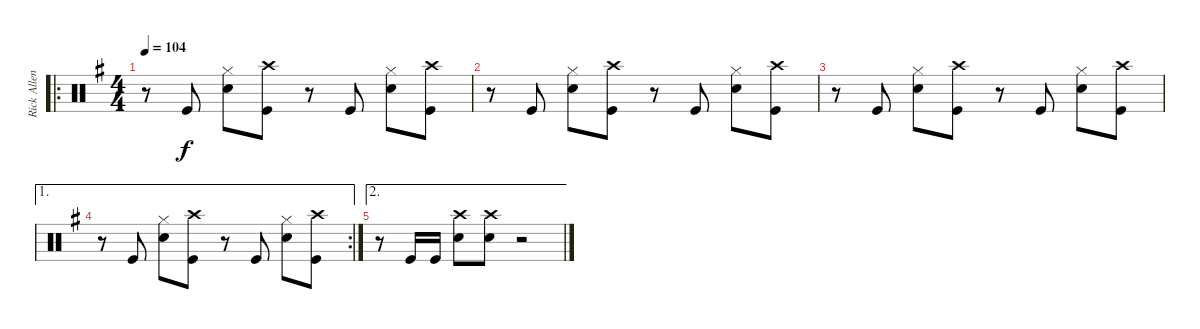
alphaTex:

\track ("Rick Allen" "Rick Allen") {instrument percussion}
\staff {score}
\articulation defaults
\ro
\ts (4 4)
\tempo 104
\clef neutral
\ks eminor
r.8{dy f} "Kick (hit)".8 ("Hi-Hat (closed)" "Snare (hit) 2").8 ("Crash high (hit)" "Kick (hit)").8 r.8 "Kick (hit)".8 ("Hi-Hat (closed)" "Snare (hit) 2").8 ("Crash high (hit)" "Kick (hit)").8 |
r.8 "Kick (hit)".8 ("Hi-Hat (closed)" "Snare (hit) 2").8 ("Crash high (hit)" "Kick (hit)").8 r.8 "Kick (hit)".8 ("Hi-Hat (closed)" "Snare (hit) 2").8 ("Crash high (hit)" "Kick (hit)").8 |
r.8 "Kick (hit)".8 ("Hi-Hat (closed)" "Snare (hit) 2").8 ("Crash high (hit)" "Kick (hit)").8 r.8 "Kick (hit)".8 ("Hi-Hat (closed)" "Snare (hit) 2").8 ("Crash high (hit)" "Kick (hit)").8 |
\ae 1
\rc 2
r.8 "Kick (hit)".8 ("Hi-Hat (closed)" "Snare (hit) 2").8 ("Crash high (hit)" "Kick (hit)").8 r.8 "Kick (hit)".8 ("Hi-Hat (closed)" "Snare (hit) 2").8 ("Crash high (hit)" "Kick (hit)").8 |
\ae 2
r.8 "Kick (hit)".16 "Kick (hit)".16 ("Crash high (hit)" "Snare (hit) 2").8 ("Crash high (hit)" "Snare (hit) 2").8 r.2
